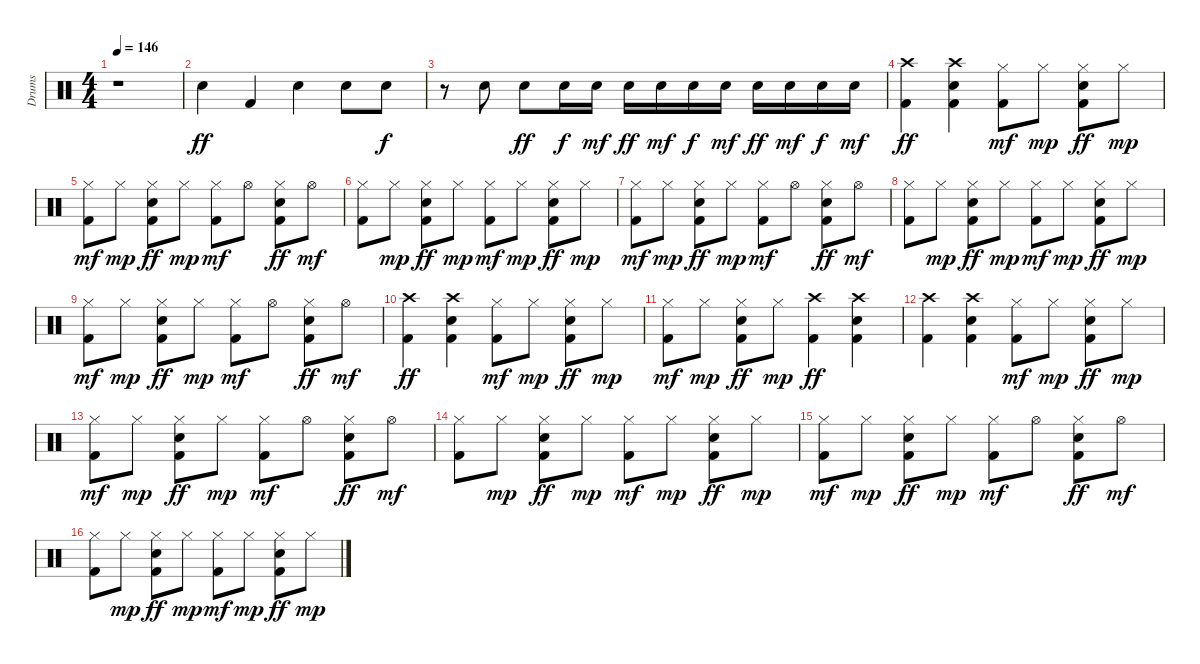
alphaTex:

\track ("Drums" "Drums") {instrument percussion}
\staff {score}
\articulation defaults
\ts (4 4)
\tempo 146
\clef neutral
\ks c
r.1{dy ff} |
"Snare (hit) 2".4 "Kick (hit) 2".4 "Snare (hit) 2".4 "Snare (hit) 2".8 "Snare (hit) 2".8{dy f} |
r.8 "Snare (hit) 2".8 "Snare (hit) 2".8{dy ff} "Snare (hit) 2".16{dy f} "Snare (hit) 2".16{dy mf} "Snare (hit) 2".16{dy ff} "Snare (hit) 2".16{dy mf} "Snare (hit) 2".16{dy f} "Snare (hit) 2".16{dy mf} "Snare (hit) 2".16{dy ff} "Snare (hit) 2".16{dy mf} "Snare (hit) 2".16{dy f} "Snare (hit) 2".16{dy mf} |
("Kick (hit) 2" "Crash high (hit)").4{dy ff} ("Kick (hit) 2" "Snare (hit) 2" "Crash high (hit)").4 ("Kick (hit) 2" "Hi-Hat (closed)").8{dy mf} "Hi-Hat (closed)".8{dy mp} ("Kick (hit) 2" "Snare (hit) 2" "Hi-Hat (closed)").8{dy ff} "Hi-Hat (closed)".8{dy mp} |
("Kick (hit) 2" "Hi-Hat (closed)").8{dy mf} "Hi-Hat (closed)".8{dy mp} ("Kick (hit) 2" "Snare (hit) 2" "Hi-Hat (closed)").8{dy ff} "Hi-Hat (closed)".8{dy mp} ("Kick (hit) 2" "Hi-Hat (closed)").8{dy mf} "Hi-Hat (open)".8 ("Kick (hit) 2" "Snare (hit) 2" "Hi-Hat (closed)").8{dy ff} "Hi-Hat (open)".8{dy mf} |
("Kick (hit) 2" "Hi-Hat (closed)").8 "Hi-Hat (closed)".8{dy mp} ("Kick (hit) 2" "Snare (hit) 2" "Hi-Hat (closed)").8{dy ff} "Hi-Hat (closed)".8{dy mp} ("Kick (hit) 2" "Hi-Hat (closed)").8{dy mf} "Hi-Hat (closed)".8{dy mp} ("Kick (hit) 2" "Snare (hit) 2" "Hi-Hat (closed)").8{dy ff} "Hi-Hat (closed)".8{dy mp} |
("Kick (hit) 2" "Hi-Hat (closed)").8{dy mf} "Hi-Hat (closed)".8{dy mp} ("Kick (hit) 2" "Snare (hit) 2" "Hi-Hat (closed)").8{dy ff} "Hi-Hat (closed)".8{dy mp} ("Kick (hit) 2" "Hi-Hat (closed)").8{dy mf} "Hi-Hat (open)".8 ("Kick (hit) 2" "Snare (hit) 2" "Hi-Hat (closed)").8{dy ff} "Hi-Hat (open)".8{dy mf} |
("Kick (hit) 2" "Hi-Hat (closed)").8 "Hi-Hat (closed)".8{dy mp} ("Kick (hit) 2" "Snare (hit) 2" "Hi-Hat (closed)").8{dy ff} "Hi-Hat (closed)".8{dy mp} ("Kick (hit) 2" "Hi-Hat (closed)").8{dy mf} "Hi-Hat (closed)".8{dy mp} ("Kick (hit) 2" "Snare (hit) 2" "Hi-Hat (closed)").8{dy ff} "Hi-Hat (closed)".8{dy mp} |
("Kick (hit) 2" "Hi-Hat (closed)").8{dy mf} "Hi-Hat (closed)".8{dy mp} ("Kick (hit) 2" "Snare (hit) 2" "Hi-Hat (closed)").8{dy ff} "Hi-Hat (closed)".8{dy mp} ("Kick (hit) 2" "Hi-Hat (closed)").8{dy mf} "Hi-Hat (open)".8 ("Kick (hit) 2" "Snare (hit) 2" "Hi-Hat (closed)").8{dy ff} "Hi-Hat (open)".8{dy mf} |
("Kick (hit) 2" "Crash high (hit)").4{dy ff} ("Kick (hit) 2" "Snare (hit) 2" "Crash high (hit)").4 ("Kick (hit) 2" "Hi-Hat (closed)").8{dy mf} "Hi-Hat (closed)".8{dy mp} ("Kick (hit) 2" "Snare (hit) 2" "Hi-Hat (closed)").8{dy ff} "Hi-Hat (closed)".8{dy mp} |
("Kick (hit) 2" "Hi-Hat (closed)").8{dy mf} "Hi-Hat (closed)".8{dy mp} ("Kick (hit) 2" "Snare (hit) 2" "Hi-Hat (closed)").8{dy ff} "Hi-Hat (closed)".8{dy mp} ("Kick (hit) 2" "Crash high (hit)").4{dy ff} ("Kick (hit) 2" "Snare (hit) 2" "Crash high (hit)").4 |
("Kick (hit) 2" "Crash high (hit)").4 ("Kick (hit) 2" "Snare (hit) 2" "Crash high (hit)").4 ("Kick (hit) 2" "Hi-Hat (closed)").8{dy mf} "Hi-Hat (closed)".8{dy mp} ("Kick (hit) 2" "Snare (hit) 2" "Hi-Hat (closed)").8{dy ff} "Hi-Hat (closed)".8{dy mp} |
("Kick (hit) 2" "Hi-Hat (closed)").8{dy mf} "Hi-Hat (closed)".8{dy mp} ("Kick (hit) 2" "Snare (hit) 2" "Hi-Hat (closed)").8{dy ff} "Hi-Hat (closed)".8{dy mp} ("Kick (hit) 2" "Hi-Hat (closed)").8{dy mf} "Hi-Hat (open)".8 ("Kick (hit) 2" "Snare (hit) 2" "Hi-Hat (closed)").8{dy ff} "Hi-Hat (open)".8{dy mf} |
("Kick (hit) 2" "Hi-Hat (closed)").8 "Hi-Hat (closed)".8{dy mp} ("Kick (hit) 2" "Snare (hit) 2" "Hi-Hat (closed)").8{dy ff} "Hi-Hat (closed)".8{dy mp} ("Kick (hit) 2" "Hi-Hat (closed)").8{dy mf} "Hi-Hat (closed)".8{dy mp} ("Kick (hit) 2" "Snare (hit) 2" "Hi-Hat (closed)").8{dy ff} "Hi-Hat (closed)".8{dy mp} |
("Kick (hit) 2" "Hi-Hat (closed)").8{dy mf} "Hi-Hat (closed)".8{dy mp} ("Kick (hit) 2" "Snare (hit) 2" "Hi-Hat (closed)").8{dy ff} "Hi-Hat (closed)".8{dy mp} ("Kick (hit) 2" "Hi-Hat (closed)").8{dy mf} "Hi-Hat (open)".8 ("Kick (hit) 2" "Snare (hit) 2" "Hi-Hat (closed)").8{dy ff} "Hi-Hat (open)".8{dy mf} |
("Kick (hit) 2" "Hi-Hat (closed)").8 "Hi-Hat (closed)".8{dy mp} ("Kick (hit) 2" "Snare (hit) 2" "Hi-Hat (closed)").8{dy ff} "Hi-Hat (closed)".8{dy mp} ("Kick (hit) 2" "Hi-Hat (closed)").8{dy mf} "Hi-Hat (closed)".8{dy mp} ("Kick (hit) 2" "Snare (hit) 2" "Hi-Hat (closed)").8{dy ff} "Hi-Hat (closed)".8{dy mp}
